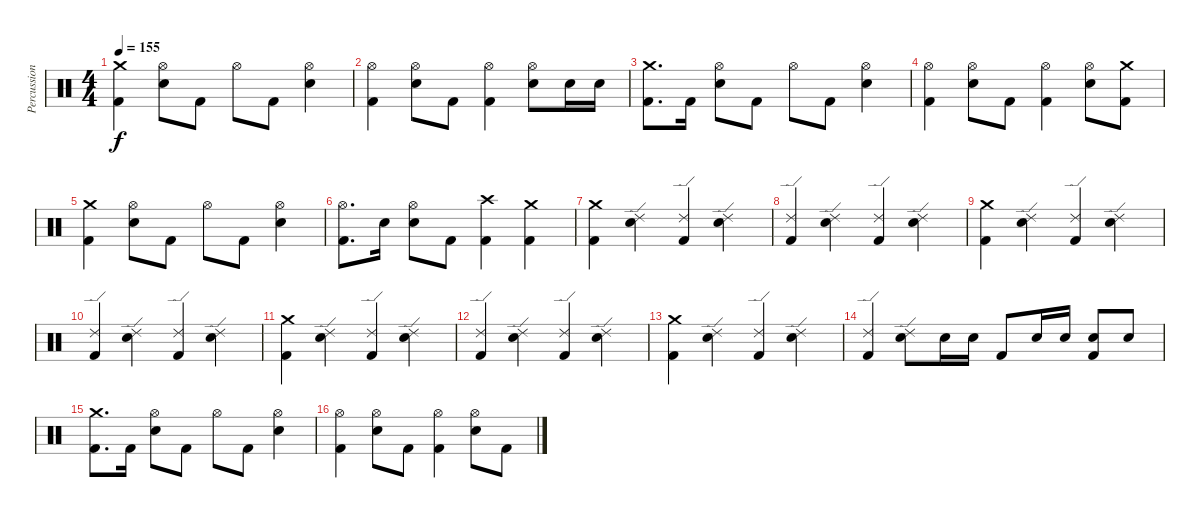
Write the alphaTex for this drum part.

\track ("Percussion" "Percussion") {instrument percussion}
\staff {score}
\articulation defaults
\ts (4 4)
\tempo 155
\clef neutral
\ks c
("Crash medium (hit)" "Kick (hit) 2").4{dy f} ("Hi-Hat (open)" "Electric Snare (hit)").8 "Kick (hit) 2".8 "Hi-Hat (open)".8 "Kick (hit) 2".8 ("Hi-Hat (open)" "Electric Snare (hit)").4 |
("Hi-Hat (open)" "Kick (hit) 2").4 ("Hi-Hat (open)" "Electric Snare (hit)").8 "Kick (hit) 2".8 ("Hi-Hat (open)" "Kick (hit) 2").4 ("Hi-Hat (open)" "Electric Snare (hit)").8 "Electric Snare (hit)".16 "Electric Snare (hit)".16 |
("Crash medium (hit)" "Kick (hit) 2").8{d} "Kick (hit) 2".16 ("Hi-Hat (open)" "Electric Snare (hit)").8 "Kick (hit) 2".8 "Hi-Hat (open)".8 "Kick (hit) 2".8 ("Hi-Hat (open)" "Electric Snare (hit)").4 |
("Hi-Hat (open)" "Kick (hit) 2").4 ("Hi-Hat (open)" "Electric Snare (hit)").8 "Kick (hit) 2".8 ("Hi-Hat (open)" "Kick (hit) 2").4 ("Hi-Hat (open)" "Electric Snare (hit)").8 ("Crash medium (hit)" "Kick (hit) 2").8 |
("Crash medium (hit)" "Kick (hit) 2").4 ("Hi-Hat (open)" "Electric Snare (hit)").8 "Kick (hit) 2".8 "Hi-Hat (open)".8 "Kick (hit) 2".8 ("Hi-Hat (open)" "Electric Snare (hit)").4 |
("Hi-Hat (open)" "Kick (hit) 2").8{d} "Electric Snare (hit)".16 ("Hi-Hat (open)" "Electric Snare (hit)").8 "Kick (hit) 2".8 ("Crash high (hit)" "Kick (hit) 2").4 ("Crash medium (hit)" "Kick (hit) 2").4 |
("Crash medium (hit)" "Kick (hit) 2").4 ("Ride (edge) 2" "Electric Snare (hit)").4 ("Ride (edge) 2" "Kick (hit) 2").4 ("Ride (edge) 2" "Electric Snare (hit)").4 |
("Ride (edge) 2" "Kick (hit) 2").4 ("Ride (edge) 2" "Electric Snare (hit)").4 ("Ride (edge) 2" "Kick (hit) 2").4 ("Ride (edge) 2" "Electric Snare (hit)").4 |
("Crash medium (hit)" "Kick (hit) 2").4 ("Ride (edge) 2" "Electric Snare (hit)").4 ("Ride (edge) 2" "Kick (hit) 2").4 ("Ride (edge) 2" "Electric Snare (hit)").4 |
("Ride (edge) 2" "Kick (hit) 2").4 ("Ride (edge) 2" "Electric Snare (hit)").4 ("Ride (edge) 2" "Kick (hit) 2").4 ("Ride (edge) 2" "Electric Snare (hit)").4 |
("Crash medium (hit)" "Kick (hit) 2").4 ("Ride (edge) 2" "Electric Snare (hit)").4 ("Ride (edge) 2" "Kick (hit) 2").4 ("Ride (edge) 2" "Electric Snare (hit)").4 |
("Ride (edge) 2" "Kick (hit) 2").4 ("Ride (edge) 2" "Electric Snare (hit)").4 ("Ride (edge) 2" "Kick (hit) 2").4 ("Ride (edge) 2" "Electric Snare (hit)").4 |
("Crash medium (hit)" "Kick (hit) 2").4 ("Ride (edge) 2" "Electric Snare (hit)").4 ("Ride (edge) 2" "Kick (hit) 2").4 ("Ride (edge) 2" "Electric Snare (hit)").4 |
("Ride (edge) 2" "Kick (hit) 2").4 ("Ride (edge) 2" "Electric Snare (hit)").8 "Electric Snare (hit)".16 "Electric Snare (hit)".16 "Kick (hit) 2".8 "Electric Snare (hit)".16 "Electric Snare (hit)".16 ("Electric Snare (hit)" "Kick (hit) 2").8 "Electric Snare (hit)".8 |
("Crash medium (hit)" "Kick (hit) 2").8{d} "Kick (hit) 2".16 ("Hi-Hat (open)" "Electric Snare (hit)").8 "Kick (hit) 2".8 "Hi-Hat (open)".8 "Kick (hit) 2".8 ("Hi-Hat (open)" "Electric Snare (hit)").4 |
("Hi-Hat (open)" "Kick (hit) 2").4 ("Hi-Hat (open)" "Electric Snare (hit)").8 "Kick (hit) 2".8 ("Hi-Hat (open)" "Kick (hit) 2").4 ("Hi-Hat (open)" "Electric Snare (hit)").8 "Kick (hit) 2".8
